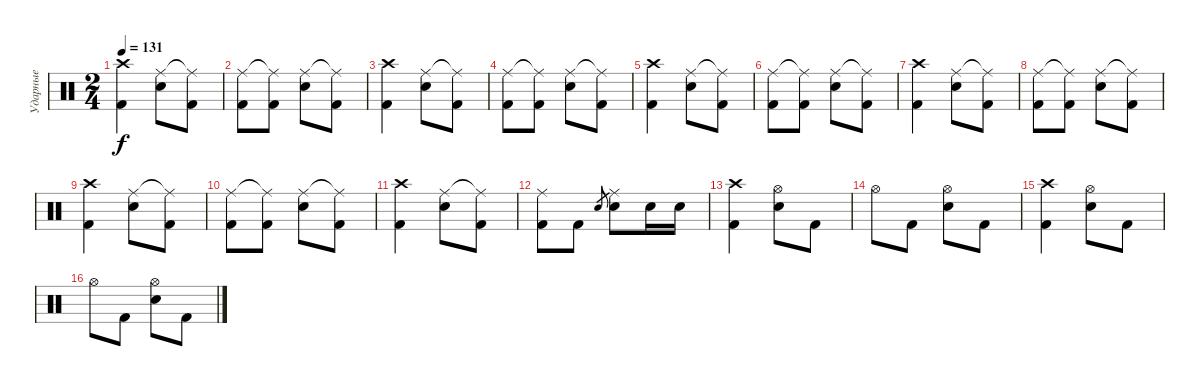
\track ("Ударные" "Ударные") {instrument percussion}
\staff {score}
\articulation defaults
\ts (2 4)
\tempo 131
\clef neutral
\ks c
("Crash high (hit)" "Kick (hit) 2").4{dy f} ("Ride (middle)" "Electric Snare (hit)").8 ("Ride (middle)"{t} "Kick (hit) 2").8 |
("Ride (middle)" "Kick (hit) 2").8 ("Ride (middle)"{t} "Kick (hit) 2").8 ("Ride (middle)" "Electric Snare (hit)").8 ("Ride (middle)"{t} "Kick (hit) 2").8 |
("Crash high (hit)" "Kick (hit) 2").4 ("Ride (middle)" "Electric Snare (hit)").8 ("Ride (middle)"{t} "Kick (hit) 2").8 |
("Ride (middle)" "Kick (hit) 2").8 ("Ride (middle)"{t} "Kick (hit) 2").8 ("Ride (middle)" "Electric Snare (hit)").8 ("Ride (middle)"{t} "Kick (hit) 2").8 |
("Crash high (hit)" "Kick (hit) 2").4 ("Ride (middle)" "Electric Snare (hit)").8 ("Ride (middle)"{t} "Kick (hit) 2").8 |
("Ride (middle)" "Kick (hit) 2").8 ("Ride (middle)"{t} "Kick (hit) 2").8 ("Ride (middle)" "Electric Snare (hit)").8 ("Ride (middle)"{t} "Kick (hit) 2").8 |
("Crash high (hit)" "Kick (hit) 2").4 ("Ride (middle)" "Electric Snare (hit)").8 ("Ride (middle)"{t} "Kick (hit) 2").8 |
("Ride (middle)" "Kick (hit) 2").8 ("Ride (middle)"{t} "Kick (hit) 2").8 ("Ride (middle)" "Electric Snare (hit)").8 ("Ride (middle)"{t} "Kick (hit) 2").8 |
("Crash high (hit)" "Kick (hit) 2").4 ("Ride (middle)" "Electric Snare (hit)").8 ("Ride (middle)"{t} "Kick (hit) 2").8 |
("Ride (middle)" "Kick (hit) 2").8 ("Ride (middle)"{t} "Kick (hit) 2").8 ("Ride (middle)" "Electric Snare (hit)").8 ("Ride (middle)"{t} "Kick (hit) 2").8 |
("Crash high (hit)" "Kick (hit) 2").4 ("Ride (middle)" "Electric Snare (hit)").8 ("Ride (middle)"{t} "Kick (hit) 2").8 |
("Ride (middle)" "Kick (hit) 2").8 "Kick (hit) 2".8 "Electric Snare (hit)".8{gr} ("Ride (middle)" "Electric Snare (hit)").8 "Electric Snare (hit)".16 "Electric Snare (hit)".16 |
("Crash high (hit)" "Kick (hit) 2").4 ("Hi-Hat (open)" "Electric Snare (hit)").8 "Kick (hit) 2".8 |
"Hi-Hat (open)".8 "Kick (hit) 2".8 ("Hi-Hat (open)" "Electric Snare (hit)").8 "Kick (hit) 2".8 |
("Crash high (hit)" "Kick (hit) 2").4 ("Hi-Hat (open)" "Electric Snare (hit)").8 "Kick (hit) 2".8 |
"Hi-Hat (open)".8 "Kick (hit) 2".8 ("Hi-Hat (open)" "Electric Snare (hit)").8 "Kick (hit) 2".8
